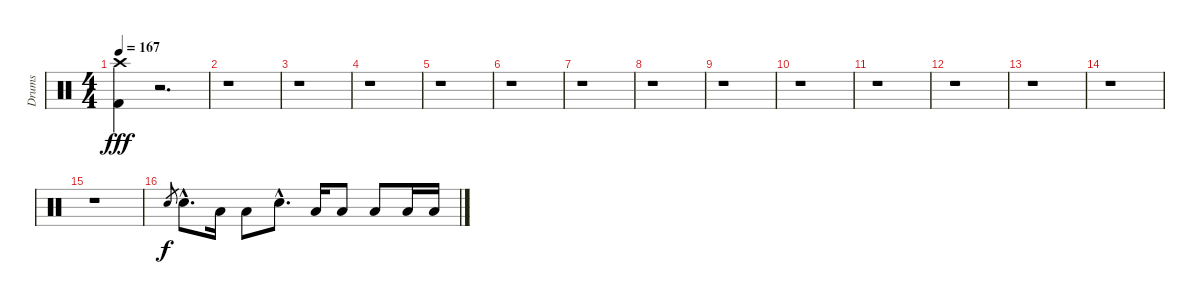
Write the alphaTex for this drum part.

\track ("Drums" "Drums") {instrument percussion}
\staff {score}
\articulation defaults
\ts (4 4)
\tempo 167
\clef neutral
\ks c
("Crash high (hit)" "Kick (hit) 2").4{dy fff} r.2{d} |
r.1 |
r.1 |
r.1 |
r.1 |
r.1 |
r.1 |
r.1 |
r.1 |
r.1 |
r.1 |
r.1 |
r.1 |
r.1 |
r.1 |
"Electric Snare (hit)".8{gr dy f} "Electric Snare (hit)"{hac}.8{d} "Low Tom (hit)".16 "Low Tom (hit)".8 "Electric Snare (hit)"{hac}.8{d} "Low Tom (hit)".16 "Low Tom (hit)".8 "Low Tom (hit)".8 "Low Tom (hit)".16 "Low Tom (hit)".16
